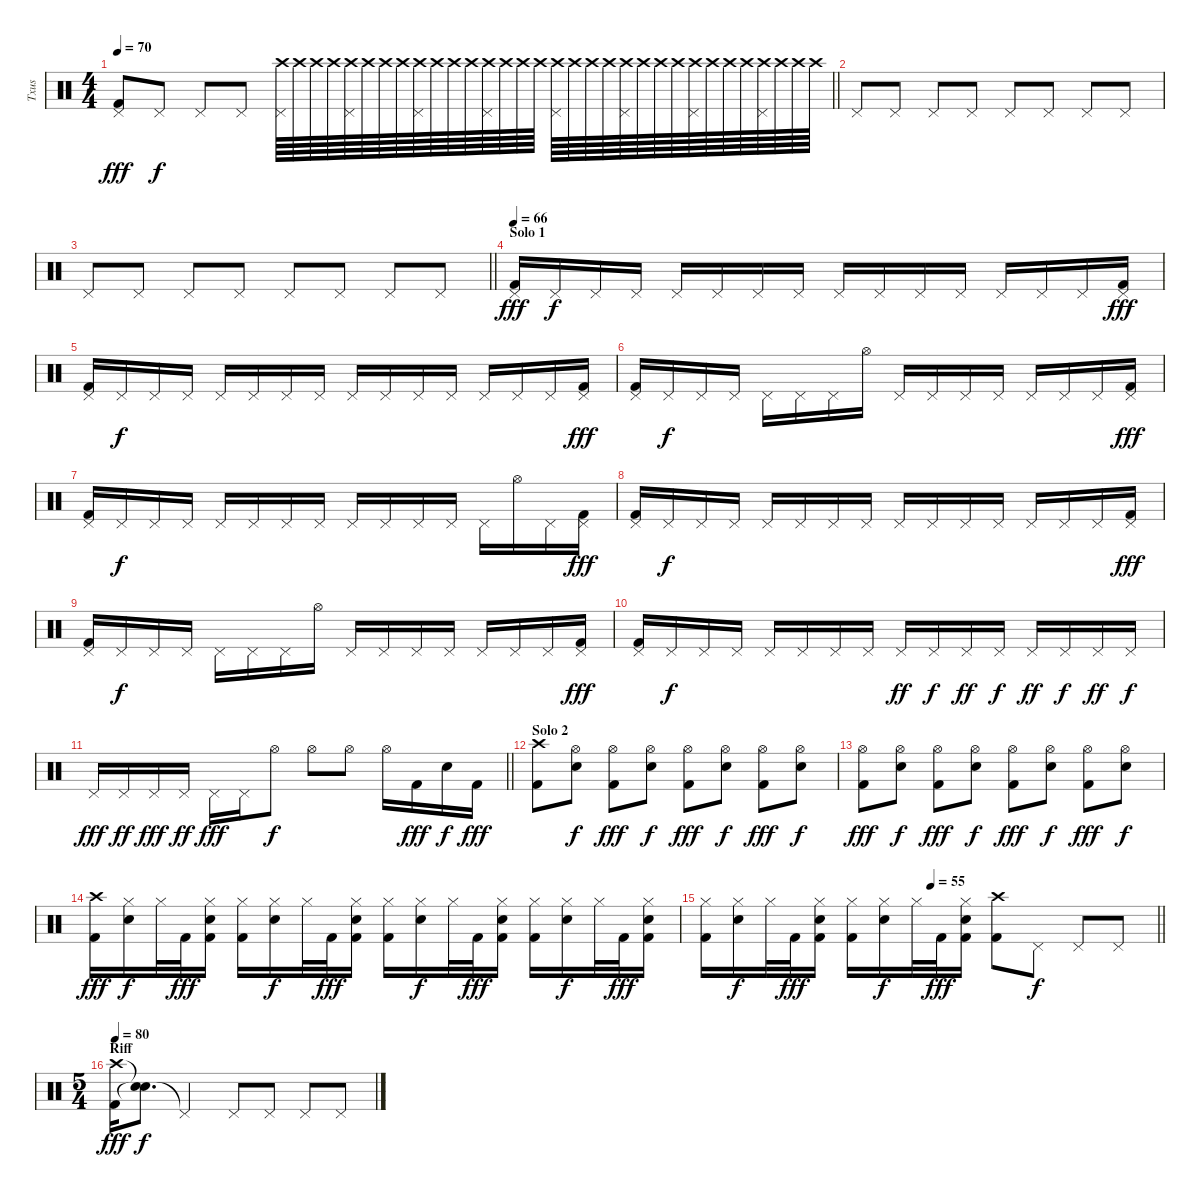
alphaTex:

\track ("Txus" "Txus") {instrument percussion}
\staff {score}
\articulation defaults
\ts (4 4)
\tempo 70
\clef neutral
\barLineRight lightlight
\ks c
("Kick (hit) 2" "Pedal Hi-Hat (hit)").8{dy fff} "Pedal Hi-Hat (hit)".8{dy f} "Pedal Hi-Hat (hit)".8 "Pedal Hi-Hat (hit)".8 ("Crash high (hit)" "Pedal Hi-Hat (hit)").64{volume 1} "Crash high (hit)".64{volume 6} "Crash high (hit)".64 "Crash high (hit)".64 ("Crash high (hit)" "Pedal Hi-Hat (hit)").64 "Crash high (hit)".64 "Crash high (hit)".64 "Crash high (hit)".64 ("Crash high (hit)" "Pedal Hi-Hat (hit)").64 "Crash high (hit)".64 "Crash high (hit)".64 "Crash high (hit)".64 ("Crash high (hit)" "Pedal Hi-Hat (hit)").64 "Crash high (hit)".64 "Crash high (hit)".64 "Crash high (hit)".64 ("Crash high (hit)" "Pedal Hi-Hat (hit)").64 "Crash high (hit)".64 "Crash high (hit)".64 "Crash high (hit)".64 ("Crash high (hit)" "Pedal Hi-Hat (hit)").64 "Crash high (hit)".64 "Crash high (hit)".64 "Crash high (hit)".64 ("Crash high (hit)" "Pedal Hi-Hat (hit)").64 "Crash high (hit)".64 "Crash high (hit)".64 "Crash high (hit)".64 ("Crash high (hit)" "Pedal Hi-Hat (hit)").64 "Crash high (hit)".64 "Crash high (hit)".64 "Crash high (hit)".64 |
"Pedal Hi-Hat (hit)".8 "Pedal Hi-Hat (hit)".8 "Pedal Hi-Hat (hit)".8{volume 16} "Pedal Hi-Hat (hit)".8 "Pedal Hi-Hat (hit)".8 "Pedal Hi-Hat (hit)".8 "Pedal Hi-Hat (hit)".8 "Pedal Hi-Hat (hit)".8 |
\barLineRight lightlight "Pedal Hi-Hat (hit)".8 "Pedal Hi-Hat (hit)".8 "Pedal Hi-Hat (hit)".8 "Pedal Hi-Hat (hit)".8 "Pedal Hi-Hat (hit)".8 "Pedal Hi-Hat (hit)".8 "Pedal Hi-Hat (hit)".8 "Pedal Hi-Hat (hit)".8
|
\section ("" "Solo 1")
\tempo 66
("Kick (hit) 2" "Pedal Hi-Hat (hit)").16{dy fff volume 16} "Pedal Hi-Hat (hit)".16{dy f} "Pedal Hi-Hat (hit)".16 "Pedal Hi-Hat (hit)".16 "Pedal Hi-Hat (hit)".16 "Pedal Hi-Hat (hit)".16 "Pedal Hi-Hat (hit)".16 "Pedal Hi-Hat (hit)".16 "Pedal Hi-Hat (hit)".16 "Pedal Hi-Hat (hit)".16 "Pedal Hi-Hat (hit)".16 "Pedal Hi-Hat (hit)".16 "Pedal Hi-Hat (hit)".16 "Pedal Hi-Hat (hit)".16 "Pedal Hi-Hat (hit)".16 ("Kick (hit) 2" "Pedal Hi-Hat (hit)").16{dy fff} |
("Kick (hit) 2" "Pedal Hi-Hat (hit)").16 "Pedal Hi-Hat (hit)".16{dy f} "Pedal Hi-Hat (hit)".16 "Pedal Hi-Hat (hit)".16 "Pedal Hi-Hat (hit)".16 "Pedal Hi-Hat (hit)".16 "Pedal Hi-Hat (hit)".16 "Pedal Hi-Hat (hit)".16 "Pedal Hi-Hat (hit)".16 "Pedal Hi-Hat (hit)".16 "Pedal Hi-Hat (hit)".16 "Pedal Hi-Hat (hit)".16 "Pedal Hi-Hat (hit)".16 "Pedal Hi-Hat (hit)".16 "Pedal Hi-Hat (hit)".16 ("Kick (hit) 2" "Pedal Hi-Hat (hit)").16{dy fff} |
("Kick (hit) 2" "Pedal Hi-Hat (hit)").16 "Pedal Hi-Hat (hit)".16{dy f} "Pedal Hi-Hat (hit)".16 "Pedal Hi-Hat (hit)".16 "Pedal Hi-Hat (hit)".16 "Pedal Hi-Hat (hit)".16 "Pedal Hi-Hat (hit)".16 "Hi-Hat (open)".16 "Pedal Hi-Hat (hit)".16 "Pedal Hi-Hat (hit)".16 "Pedal Hi-Hat (hit)".16 "Pedal Hi-Hat (hit)".16 "Pedal Hi-Hat (hit)".16 "Pedal Hi-Hat (hit)".16 "Pedal Hi-Hat (hit)".16 ("Kick (hit) 2" "Pedal Hi-Hat (hit)").16{dy fff} |
("Kick (hit) 2" "Pedal Hi-Hat (hit)").16 "Pedal Hi-Hat (hit)".16{dy f} "Pedal Hi-Hat (hit)".16 "Pedal Hi-Hat (hit)".16 "Pedal Hi-Hat (hit)".16 "Pedal Hi-Hat (hit)".16 "Pedal Hi-Hat (hit)".16 "Pedal Hi-Hat (hit)".16 "Pedal Hi-Hat (hit)".16 "Pedal Hi-Hat (hit)".16 "Pedal Hi-Hat (hit)".16 "Pedal Hi-Hat (hit)".16 "Pedal Hi-Hat (hit)".16 "Hi-Hat (open)".16 "Pedal Hi-Hat (hit)".16 ("Kick (hit) 2" "Pedal Hi-Hat (hit)").16{dy fff} |
("Kick (hit) 2" "Pedal Hi-Hat (hit)").16 "Pedal Hi-Hat (hit)".16{dy f} "Pedal Hi-Hat (hit)".16 "Pedal Hi-Hat (hit)".16 "Pedal Hi-Hat (hit)".16 "Pedal Hi-Hat (hit)".16 "Pedal Hi-Hat (hit)".16 "Pedal Hi-Hat (hit)".16 "Pedal Hi-Hat (hit)".16 "Pedal Hi-Hat (hit)".16 "Pedal Hi-Hat (hit)".16 "Pedal Hi-Hat (hit)".16 "Pedal Hi-Hat (hit)".16 "Pedal Hi-Hat (hit)".16 "Pedal Hi-Hat (hit)".16 ("Kick (hit) 2" "Pedal Hi-Hat (hit)").16{dy fff} |
("Kick (hit) 2" "Pedal Hi-Hat (hit)").16 "Pedal Hi-Hat (hit)".16{dy f} "Pedal Hi-Hat (hit)".16 "Pedal Hi-Hat (hit)".16 "Pedal Hi-Hat (hit)".16 "Pedal Hi-Hat (hit)".16 "Pedal Hi-Hat (hit)".16 "Hi-Hat (open)".16 "Pedal Hi-Hat (hit)".16 "Pedal Hi-Hat (hit)".16 "Pedal Hi-Hat (hit)".16 "Pedal Hi-Hat (hit)".16 "Pedal Hi-Hat (hit)".16 "Pedal Hi-Hat (hit)".16 "Pedal Hi-Hat (hit)".16 ("Kick (hit) 2" "Pedal Hi-Hat (hit)").16{dy fff} |
("Kick (hit) 2" "Pedal Hi-Hat (hit)").16 "Pedal Hi-Hat (hit)".16{dy f} "Pedal Hi-Hat (hit)".16 "Pedal Hi-Hat (hit)".16 "Pedal Hi-Hat (hit)".16 "Pedal Hi-Hat (hit)".16 "Pedal Hi-Hat (hit)".16 "Pedal Hi-Hat (hit)".16 "Pedal Hi-Hat (hit)".16{dy ff} "Pedal Hi-Hat (hit)".16{dy f} "Pedal Hi-Hat (hit)".16{dy ff} "Pedal Hi-Hat (hit)".16{dy f} "Pedal Hi-Hat (hit)".16{dy ff} "Pedal Hi-Hat (hit)".16{dy f} "Pedal Hi-Hat (hit)".16{dy ff} "Pedal Hi-Hat (hit)".16{dy f} |
\barLineRight lightlight "Pedal Hi-Hat (hit)".16{dy fff} "Pedal Hi-Hat (hit)".16{dy ff} "Pedal Hi-Hat (hit)".16{dy fff} "Pedal Hi-Hat (hit)".16{dy ff} "Pedal Hi-Hat (hit)".16{dy fff} "Pedal Hi-Hat (hit)".16 "Hi-Hat (open)".8{dy f} "Hi-Hat (open)".8 "Hi-Hat (open)".8 "Hi-Hat (open)".16 "Kick (hit) 2".16{dy fff} "Electric Snare (hit)".16{dy f} "Kick (hit) 2".16{dy fff}
|
\section ("" "Solo 2")
("Kick (hit) 2" "Crash high (hit)").8 ("Electric Snare (hit)" "Hi-Hat (open)").8{dy f} ("Kick (hit) 2" "Hi-Hat (open)").8{dy fff} ("Electric Snare (hit)" "Hi-Hat (open)").8{dy f} ("Kick (hit) 2" "Hi-Hat (open)").8{dy fff} ("Electric Snare (hit)" "Hi-Hat (open)").8{dy f} ("Kick (hit) 2" "Hi-Hat (open)").8{dy fff} ("Electric Snare (hit)" "Hi-Hat (open)").8{dy f} |
("Kick (hit) 2" "Hi-Hat (open)").8{dy fff} ("Electric Snare (hit)" "Hi-Hat (open)").8{dy f} ("Kick (hit) 2" "Hi-Hat (open)").8{dy fff} ("Electric Snare (hit)" "Hi-Hat (open)").8{dy f} ("Kick (hit) 2" "Hi-Hat (open)").8{dy fff} ("Electric Snare (hit)" "Hi-Hat (open)").8{dy f} ("Kick (hit) 2" "Hi-Hat (open)").8{dy fff} ("Electric Snare (hit)" "Hi-Hat (open)").8{dy f} |
("Kick (hit) 2" "Crash high (hit)").16{dy fff} ("Electric Snare (hit)" "Hi-Hat (closed)").16{dy f} "Hi-Hat (closed)".32 "Kick (hit) 2".32{dy fff} ("Kick (hit) 2" "Electric Snare (hit)" "Hi-Hat (closed)").16 ("Kick (hit) 2" "Hi-Hat (closed)").16 ("Electric Snare (hit)" "Hi-Hat (closed)").16{dy f} "Hi-Hat (closed)".32 "Kick (hit) 2".32{dy fff} ("Kick (hit) 2" "Electric Snare (hit)" "Hi-Hat (closed)").16 ("Kick (hit) 2" "Hi-Hat (closed)").16 ("Electric Snare (hit)" "Hi-Hat (closed)").16{dy f} "Hi-Hat (closed)".32 "Kick (hit) 2".32{dy fff} ("Kick (hit) 2" "Electric Snare (hit)" "Hi-Hat (closed)").16 ("Kick (hit) 2" "Hi-Hat (closed)").16 ("Electric Snare (hit)" "Hi-Hat (closed)").16{dy f} "Hi-Hat (closed)".32 "Kick (hit) 2".32{dy fff} ("Kick (hit) 2" "Electric Snare (hit)" "Hi-Hat (closed)").16 |
\tempo (55 0.5)
\barLineRight lightlight
("Kick (hit) 2" "Hi-Hat (closed)").16 ("Electric Snare (hit)" "Hi-Hat (closed)").16{dy f} "Hi-Hat (closed)".32 "Kick (hit) 2".32{dy fff} ("Kick (hit) 2" "Electric Snare (hit)" "Hi-Hat (closed)").16 ("Kick (hit) 2" "Hi-Hat (closed)").16 ("Electric Snare (hit)" "Hi-Hat (closed)").16{dy f} "Hi-Hat (closed)".32 "Kick (hit) 2".32{dy fff} ("Kick (hit) 2" "Electric Snare (hit)" "Hi-Hat (closed)").16 ("Kick (hit) 2" "Crash high (hit)").8 "Pedal Hi-Hat (hit)".8{dy f} "Pedal Hi-Hat (hit)".8 "Pedal Hi-Hat (hit)".8 |
\ts (5 4)
\section ("" "Riff ")
\tempo 80
("Kick (hit) 2" "Crash high (hit)").16{dy fff} ("Snare (hit)"{t} "Snare (hit)"{t}).8{d dy f volume 0} "Pedal Hi-Hat (hit)"{t}.2 "Pedal Hi-Hat (hit)".8{volume 16} "Pedal Hi-Hat (hit)".8 "Pedal Hi-Hat (hit)".8 "Pedal Hi-Hat (hit)".8
